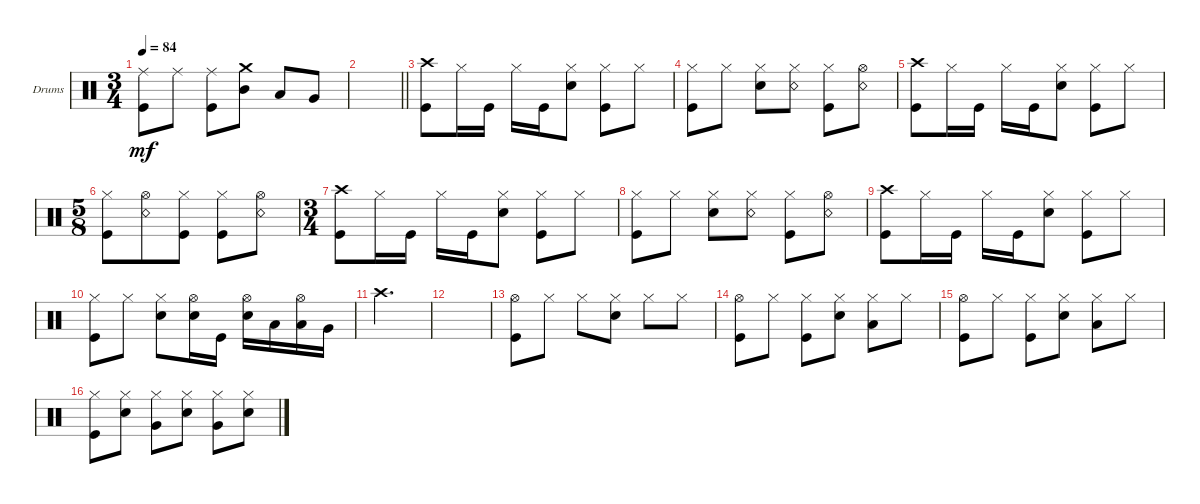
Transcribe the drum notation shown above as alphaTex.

\defaultSystemsLayout 4
\bracketExtendMode groupsimilarinstruments
\firstSystemTrackNameOrientation horizontal
\otherSystemsTrackNameOrientation horizontal
\track ("Drumkit" "Drums") {instrument percussion}
\staff {score}
\articulation defaults
\ts (3 4)
\tempo 84
\clef neutral
\scale
0.333333
\ks c
("Kick (hit)" "Ride (middle)").8{dy mf} "Ride (middle)".8 ("Ride (middle)" "Kick (hit)").8 ("Mid Tom (hit)" "Crash medium (hit)").8 "Low Tom (hit)".8 "Very Low Tom (hit)".8 |
\scale
0.333333
\barLineRight lightlight
|
\scale
0.333333 ("Kick (hit)" "Crash high (hit)").8 "Hi-Hat (closed)".16 "Kick (hit)".16 "Hi-Hat (closed)".16 "Kick (hit)".16 ("Snare (hit) 2" "Hi-Hat (closed)").8 ("Kick (hit)" "Hi-Hat (closed)").8 "Hi-Hat (closed)".8 |
\scale
0.333333 ("Kick (hit)" "Hi-Hat (closed)").8 "Hi-Hat (closed)".8 ("Snare (hit) 2" "Hi-Hat (closed)").8 ("Snare (rim shot)" "Hi-Hat (closed)").8 ("Kick (hit)" "Hi-Hat (closed)").8 ("Snare (rim shot)" "Hi-Hat (open)").8 |
\scale
0.333333 ("Kick (hit)" "Crash high (hit)").8 "Hi-Hat (closed)".16 "Kick (hit)".16 "Hi-Hat (closed)".16 "Kick (hit)".16 ("Snare (hit) 2" "Hi-Hat (closed)").8 ("Kick (hit)" "Hi-Hat (closed)").8 "Hi-Hat (closed)".8 |
\ts (5 8)
\scale
0.333333 ("Kick (hit)" "Hi-Hat (closed)").8 ("Snare (rim shot)" "Hi-Hat (open)").8 ("Kick (hit)" "Hi-Hat (closed)").8 ("Kick (hit)" "Hi-Hat (closed)").8 ("Snare (rim shot)" "Hi-Hat (open)").8 |
\ts (3 4)
\scale
0.333333 ("Kick (hit)" "Crash high (hit)").8 "Hi-Hat (closed)".16 "Kick (hit)".16 "Hi-Hat (closed)".16 "Kick (hit)".16 ("Snare (hit) 2" "Hi-Hat (closed)").8 ("Kick (hit)" "Hi-Hat (closed)").8 "Hi-Hat (closed)".8 |
\scale
0.333333 ("Kick (hit)" "Hi-Hat (closed)").8 "Hi-Hat (closed)".8 ("Snare (hit) 2" "Hi-Hat (closed)").8 ("Snare (rim shot)" "Hi-Hat (closed)").8 ("Kick (hit)" "Hi-Hat (closed)").8 ("Snare (rim shot)" "Hi-Hat (open)").8 |
\scale
0.333333 ("Kick (hit)" "Crash high (hit)").8 "Hi-Hat (closed)".16 "Kick (hit)".16 "Hi-Hat (closed)".16 "Kick (hit)".16 ("Snare (hit) 2" "Hi-Hat (closed)").8 ("Kick (hit)" "Hi-Hat (closed)").8 "Hi-Hat (closed)".8 |
\scale
0.333333 ("Kick (hit)" "Hi-Hat (closed)").8 "Hi-Hat (closed)".8 ("Snare (hit) 2" "Hi-Hat (closed)").8 ("Snare (hit) 2" "Hi-Hat (open)").16 "Kick (hit)".16 ("Snare (hit) 2" "Hi-Hat (open)").16 "Low Tom (hit)".16 ("Low Tom (hit)" "Hi-Hat (open)").16 "Very Low Tom (hit)".16 |
\scale
0.333333 "Crash high (hit)".2{d} |
\scale
0.333333 |
\scale
0.333333 ("Kick (hit)" "Hi-Hat (open)").8 "Hi-Hat (closed)".8 "Hi-Hat (closed)".8 ("Snare (hit) 2" "Hi-Hat (closed)").8 "Hi-Hat (closed)".8 "Hi-Hat (closed)".8 |
("Kick (hit)" "Hi-Hat (open)").8 "Hi-Hat (closed)".8 ("Hi-Hat (closed)" "Kick (hit)").8 ("Snare (hit) 2" "Hi-Hat (closed)").8 ("Low Tom (hit)" "Hi-Hat (closed)").8 "Hi-Hat (closed)".8 |
("Kick (hit)" "Hi-Hat (open)").8 "Hi-Hat (closed)".8 ("Kick (hit)" "Hi-Hat (closed)").8 ("Snare (hit) 2" "Hi-Hat (closed)").8 ("Hi-Hat (closed)" "Low Tom (hit)").8 "Hi-Hat (closed)".8 |
("Kick (hit)" "Hi-Hat (closed)").8 ("Snare (hit) 2" "Hi-Hat (closed)").8 ("Very Low Tom (hit)" "Hi-Hat (closed)").8 ("Snare (hit) 2" "Hi-Hat (closed)").8 ("Very Low Tom (hit)" "Hi-Hat (closed)").8 ("Hi-Hat (closed)" "Snare (hit) 2").8
